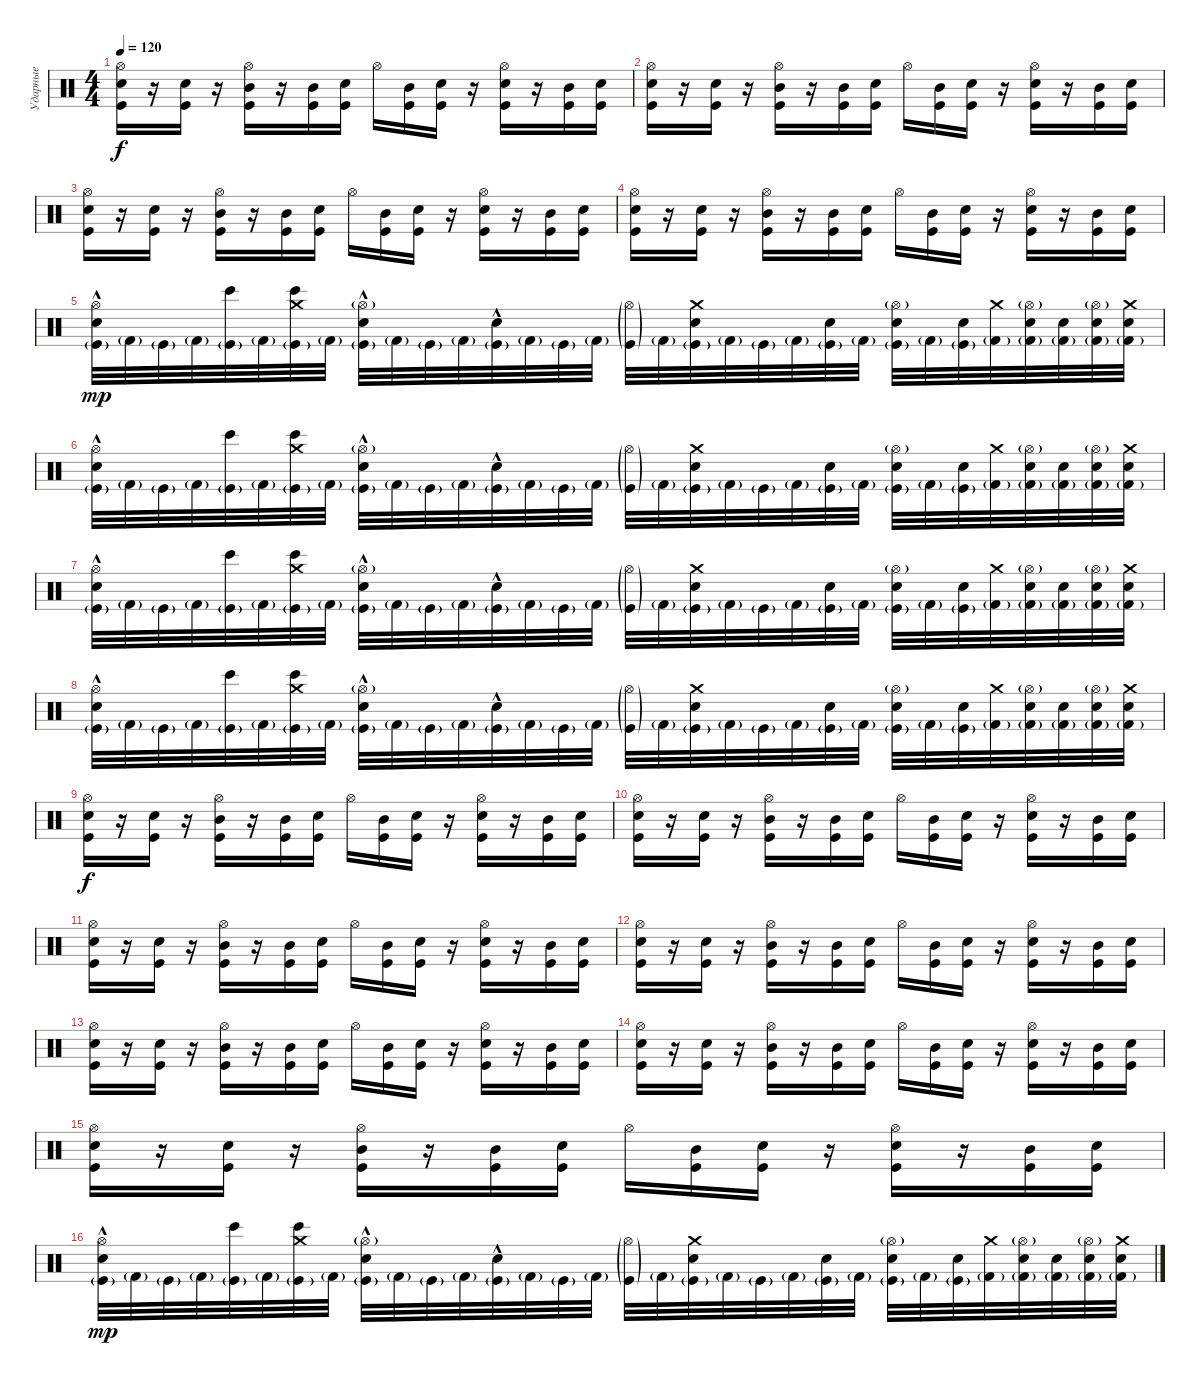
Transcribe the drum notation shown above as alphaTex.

\track ("Ударные" "Ударные") {instrument percussion}
\staff {score}
\articulation defaults
\ts (4 4)
\tempo 120
\clef neutral
\ks c
("Hi-Hat (open)" "Snare (hit) 2" "Kick (hit)").16{dy f} r.16 ("Snare (hit) 2" "Kick (hit)").16 r.16 ("Hi-Hat (open)" "Mid Tom (hit)" "Kick (hit)").16 r.16 ("Mid Tom (hit)" "Kick (hit)").16 ("Snare (hit) 2" "Kick (hit)").16 "Hi-Hat (open)".16 ("Mid Tom (hit)" "Kick (hit)").16 ("Snare (hit) 2" "Kick (hit)").16 r.16 ("Hi-Hat (open)" "Snare (hit) 2" "Kick (hit)").16 r.16 ("Mid Tom (hit)" "Kick (hit)").16 ("Snare (hit) 2" "Kick (hit)").16 |
("Hi-Hat (open)" "Snare (hit) 2" "Kick (hit)").16 r.16 ("Snare (hit) 2" "Kick (hit)").16 r.16 ("Hi-Hat (open)" "Mid Tom (hit)" "Kick (hit)").16 r.16 ("Mid Tom (hit)" "Kick (hit)").16 ("Snare (hit) 2" "Kick (hit)").16 "Hi-Hat (open)".16 ("Mid Tom (hit)" "Kick (hit)").16 ("Snare (hit) 2" "Kick (hit)").16 r.16 ("Hi-Hat (open)" "Snare (hit) 2" "Kick (hit)").16 r.16 ("Mid Tom (hit)" "Kick (hit)").16 ("Snare (hit) 2" "Kick (hit)").16 |
("Hi-Hat (open)" "Snare (hit) 2" "Kick (hit)").16 r.16 ("Snare (hit) 2" "Kick (hit)").16 r.16 ("Hi-Hat (open)" "Mid Tom (hit)" "Kick (hit)").16 r.16 ("Mid Tom (hit)" "Kick (hit)").16 ("Snare (hit) 2" "Kick (hit)").16 "Hi-Hat (open)".16 ("Mid Tom (hit)" "Kick (hit)").16 ("Snare (hit) 2" "Kick (hit)").16 r.16 ("Hi-Hat (open)" "Snare (hit) 2" "Kick (hit)").16 r.16 ("Mid Tom (hit)" "Kick (hit)").16 ("Snare (hit) 2" "Kick (hit)").16 |
("Hi-Hat (open)" "Snare (hit) 2" "Kick (hit)").16 r.16 ("Snare (hit) 2" "Kick (hit)").16 r.16 ("Hi-Hat (open)" "Mid Tom (hit)" "Kick (hit)").16 r.16 ("Mid Tom (hit)" "Kick (hit)").16 ("Snare (hit) 2" "Kick (hit)").16 "Hi-Hat (open)".16 ("Mid Tom (hit)" "Kick (hit)").16 ("Snare (hit) 2" "Kick (hit)").16 r.16 ("Hi-Hat (open)" "Snare (hit) 2" "Kick (hit)").16 r.16 ("Mid Tom (hit)" "Kick (hit)").16 ("Snare (hit) 2" "Kick (hit)").16 |
("Hi-Hat (open)" "Snare (hit) 2"{hac} "Kick (hit)"{g}).32{dy mp} "Kick (hit) 2"{g}.32 "Kick (hit)"{g}.32 "Kick (hit) 2"{g}.32 ("Bongo High (hit)" "Kick (hit)"{g}).32 "Kick (hit) 2"{g}.32 ("Crash medium (hit)" "Bongo High (hit)" "Kick (hit)"{g}).32 "Kick (hit) 2"{g}.32 ("Hi-Hat (open)"{g} "Electric Snare (hit)"{hac} "Kick (hit)"{g}).32 "Kick (hit) 2"{g}.32 "Kick (hit)"{g}.32 "Kick (hit) 2"{g}.32 ("Snare (hit) 2"{hac} "Kick (hit)"{g}).32 "Kick (hit) 2"{g}.32 "Kick (hit)"{g}.32 "Kick (hit) 2"{g}.32 ("Hi-Hat (open)"{g} "Kick (hit)"{g}).32 "Kick (hit) 2"{g}.32 ("Crash medium (hit)" "Snare (hit) 2" "Kick (hit)"{g}).32 "Kick (hit) 2"{g}.32 "Kick (hit)"{g}.32 "Kick (hit) 2"{g}.32 ("Snare (hit) 2" "Kick (hit)"{g}).32 "Kick (hit) 2"{g}.32 ("Hi-Hat (open)"{g} "Electric Snare (hit)" "Kick (hit)"{g}).32 "Kick (hit) 2"{g}.32 ("Electric Snare (hit)" "Kick (hit)"{g}).32 ("Crash medium (hit)" "Kick (hit) 2"{g}).32 ("Hi-Hat (open)"{g} "Electric Snare (hit)" "Kick (hit) 2"{g}).32 ("Electric Snare (hit)" "Kick (hit) 2"{g}).32 ("Hi-Hat (open)"{g} "Electric Snare (hit)" "Kick (hit) 2"{g}).32 ("Crash medium (hit)" "Electric Snare (hit)" "Kick (hit) 2"{g}).32 |
("Hi-Hat (open)" "Snare (hit) 2"{hac} "Kick (hit)"{g}).32 "Kick (hit) 2"{g}.32 "Kick (hit)"{g}.32 "Kick (hit) 2"{g}.32 ("Bongo High (hit)" "Kick (hit)"{g}).32 "Kick (hit) 2"{g}.32 ("Crash medium (hit)" "Bongo High (hit)" "Kick (hit)"{g}).32 "Kick (hit) 2"{g}.32 ("Hi-Hat (open)"{g} "Electric Snare (hit)"{hac} "Kick (hit)"{g}).32 "Kick (hit) 2"{g}.32 "Kick (hit)"{g}.32 "Kick (hit) 2"{g}.32 ("Snare (hit) 2"{hac} "Kick (hit)"{g}).32 "Kick (hit) 2"{g}.32 "Kick (hit)"{g}.32 "Kick (hit) 2"{g}.32 ("Hi-Hat (open)"{g} "Kick (hit)"{g}).32 "Kick (hit) 2"{g}.32 ("Crash medium (hit)" "Snare (hit) 2" "Kick (hit)"{g}).32 "Kick (hit) 2"{g}.32 "Kick (hit)"{g}.32 "Kick (hit) 2"{g}.32 ("Snare (hit) 2" "Kick (hit)"{g}).32 "Kick (hit) 2"{g}.32 ("Hi-Hat (open)"{g} "Electric Snare (hit)" "Kick (hit)"{g}).32 "Kick (hit) 2"{g}.32 ("Electric Snare (hit)" "Kick (hit)"{g}).32 ("Crash medium (hit)" "Kick (hit) 2"{g}).32 ("Hi-Hat (open)"{g} "Electric Snare (hit)" "Kick (hit) 2"{g}).32 ("Electric Snare (hit)" "Kick (hit) 2"{g}).32 ("Hi-Hat (open)"{g} "Electric Snare (hit)" "Kick (hit) 2"{g}).32 ("Crash medium (hit)" "Electric Snare (hit)" "Kick (hit) 2"{g}).32 |
("Hi-Hat (open)" "Snare (hit) 2"{hac} "Kick (hit)"{g}).32 "Kick (hit) 2"{g}.32 "Kick (hit)"{g}.32 "Kick (hit) 2"{g}.32 ("Bongo High (hit)" "Kick (hit)"{g}).32 "Kick (hit) 2"{g}.32 ("Crash medium (hit)" "Bongo High (hit)" "Kick (hit)"{g}).32 "Kick (hit) 2"{g}.32 ("Hi-Hat (open)"{g} "Electric Snare (hit)"{hac} "Kick (hit)"{g}).32 "Kick (hit) 2"{g}.32 "Kick (hit)"{g}.32 "Kick (hit) 2"{g}.32 ("Snare (hit) 2"{hac} "Kick (hit)"{g}).32 "Kick (hit) 2"{g}.32 "Kick (hit)"{g}.32 "Kick (hit) 2"{g}.32 ("Hi-Hat (open)"{g} "Kick (hit)"{g}).32 "Kick (hit) 2"{g}.32 ("Crash medium (hit)" "Snare (hit) 2" "Kick (hit)"{g}).32 "Kick (hit) 2"{g}.32 "Kick (hit)"{g}.32 "Kick (hit) 2"{g}.32 ("Snare (hit) 2" "Kick (hit)"{g}).32 "Kick (hit) 2"{g}.32 ("Hi-Hat (open)"{g} "Electric Snare (hit)" "Kick (hit)"{g}).32 "Kick (hit) 2"{g}.32 ("Electric Snare (hit)" "Kick (hit)"{g}).32 ("Crash medium (hit)" "Kick (hit) 2"{g}).32 ("Hi-Hat (open)"{g} "Electric Snare (hit)" "Kick (hit) 2"{g}).32 ("Electric Snare (hit)" "Kick (hit) 2"{g}).32 ("Hi-Hat (open)"{g} "Electric Snare (hit)" "Kick (hit) 2"{g}).32 ("Crash medium (hit)" "Electric Snare (hit)" "Kick (hit) 2"{g}).32 |
("Hi-Hat (open)" "Snare (hit) 2"{hac} "Kick (hit)"{g}).32 "Kick (hit) 2"{g}.32 "Kick (hit)"{g}.32 "Kick (hit) 2"{g}.32 ("Bongo High (hit)" "Kick (hit)"{g}).32 "Kick (hit) 2"{g}.32 ("Crash medium (hit)" "Bongo High (hit)" "Kick (hit)"{g}).32 "Kick (hit) 2"{g}.32 ("Hi-Hat (open)"{g} "Electric Snare (hit)"{hac} "Kick (hit)"{g}).32 "Kick (hit) 2"{g}.32 "Kick (hit)"{g}.32 "Kick (hit) 2"{g}.32 ("Snare (hit) 2"{hac} "Kick (hit)"{g}).32 "Kick (hit) 2"{g}.32 "Kick (hit)"{g}.32 "Kick (hit) 2"{g}.32 ("Hi-Hat (open)"{g} "Kick (hit)"{g}).32 "Kick (hit) 2"{g}.32 ("Crash medium (hit)" "Snare (hit) 2" "Kick (hit)"{g}).32 "Kick (hit) 2"{g}.32 "Kick (hit)"{g}.32 "Kick (hit) 2"{g}.32 ("Snare (hit) 2" "Kick (hit)"{g}).32 "Kick (hit) 2"{g}.32 ("Hi-Hat (open)"{g} "Electric Snare (hit)" "Kick (hit)"{g}).32 "Kick (hit) 2"{g}.32 ("Electric Snare (hit)" "Kick (hit)"{g}).32 ("Crash medium (hit)" "Kick (hit) 2"{g}).32 ("Hi-Hat (open)"{g} "Electric Snare (hit)" "Kick (hit) 2"{g}).32 ("Electric Snare (hit)" "Kick (hit) 2"{g}).32 ("Hi-Hat (open)"{g} "Electric Snare (hit)" "Kick (hit) 2"{g}).32 ("Crash medium (hit)" "Electric Snare (hit)" "Kick (hit) 2"{g}).32 |
("Hi-Hat (open)" "Snare (hit) 2" "Kick (hit)").16{dy f} r.16 ("Snare (hit) 2" "Kick (hit)").16 r.16 ("Hi-Hat (open)" "Mid Tom (hit)" "Kick (hit)").16 r.16 ("Mid Tom (hit)" "Kick (hit)").16 ("Snare (hit) 2" "Kick (hit)").16 "Hi-Hat (open)".16 ("Mid Tom (hit)" "Kick (hit)").16 ("Snare (hit) 2" "Kick (hit)").16 r.16 ("Hi-Hat (open)" "Snare (hit) 2" "Kick (hit)").16 r.16 ("Mid Tom (hit)" "Kick (hit)").16 ("Snare (hit) 2" "Kick (hit)").16 |
("Hi-Hat (open)" "Snare (hit) 2" "Kick (hit)").16 r.16 ("Snare (hit) 2" "Kick (hit)").16 r.16 ("Hi-Hat (open)" "Mid Tom (hit)" "Kick (hit)").16 r.16 ("Mid Tom (hit)" "Kick (hit)").16 ("Snare (hit) 2" "Kick (hit)").16 "Hi-Hat (open)".16 ("Mid Tom (hit)" "Kick (hit)").16 ("Snare (hit) 2" "Kick (hit)").16 r.16 ("Hi-Hat (open)" "Snare (hit) 2" "Kick (hit)").16 r.16 ("Mid Tom (hit)" "Kick (hit)").16 ("Snare (hit) 2" "Kick (hit)").16 |
("Hi-Hat (open)" "Snare (hit) 2" "Kick (hit)").16 r.16 ("Snare (hit) 2" "Kick (hit)").16 r.16 ("Hi-Hat (open)" "Mid Tom (hit)" "Kick (hit)").16 r.16 ("Mid Tom (hit)" "Kick (hit)").16 ("Snare (hit) 2" "Kick (hit)").16 "Hi-Hat (open)".16 ("Mid Tom (hit)" "Kick (hit)").16 ("Snare (hit) 2" "Kick (hit)").16 r.16 ("Hi-Hat (open)" "Snare (hit) 2" "Kick (hit)").16 r.16 ("Mid Tom (hit)" "Kick (hit)").16 ("Snare (hit) 2" "Kick (hit)").16 |
("Hi-Hat (open)" "Snare (hit) 2" "Kick (hit)").16 r.16 ("Snare (hit) 2" "Kick (hit)").16 r.16 ("Hi-Hat (open)" "Mid Tom (hit)" "Kick (hit)").16 r.16 ("Mid Tom (hit)" "Kick (hit)").16 ("Snare (hit) 2" "Kick (hit)").16 "Hi-Hat (open)".16 ("Mid Tom (hit)" "Kick (hit)").16 ("Snare (hit) 2" "Kick (hit)").16 r.16 ("Hi-Hat (open)" "Snare (hit) 2" "Kick (hit)").16 r.16 ("Mid Tom (hit)" "Kick (hit)").16 ("Snare (hit) 2" "Kick (hit)").16 |
("Hi-Hat (open)" "Snare (hit) 2" "Kick (hit)").16 r.16 ("Snare (hit) 2" "Kick (hit)").16 r.16 ("Hi-Hat (open)" "Mid Tom (hit)" "Kick (hit)").16 r.16 ("Mid Tom (hit)" "Kick (hit)").16 ("Snare (hit) 2" "Kick (hit)").16 "Hi-Hat (open)".16 ("Mid Tom (hit)" "Kick (hit)").16 ("Snare (hit) 2" "Kick (hit)").16 r.16 ("Hi-Hat (open)" "Snare (hit) 2" "Kick (hit)").16 r.16 ("Mid Tom (hit)" "Kick (hit)").16 ("Snare (hit) 2" "Kick (hit)").16 |
("Hi-Hat (open)" "Snare (hit) 2" "Kick (hit)").16 r.16 ("Snare (hit) 2" "Kick (hit)").16 r.16 ("Hi-Hat (open)" "Mid Tom (hit)" "Kick (hit)").16 r.16 ("Mid Tom (hit)" "Kick (hit)").16 ("Snare (hit) 2" "Kick (hit)").16 "Hi-Hat (open)".16 ("Mid Tom (hit)" "Kick (hit)").16 ("Snare (hit) 2" "Kick (hit)").16 r.16 ("Hi-Hat (open)" "Snare (hit) 2" "Kick (hit)").16 r.16 ("Mid Tom (hit)" "Kick (hit)").16 ("Snare (hit) 2" "Kick (hit)").16 |
("Hi-Hat (open)" "Snare (hit) 2" "Kick (hit)").16 r.16 ("Snare (hit) 2" "Kick (hit)").16 r.16 ("Hi-Hat (open)" "Mid Tom (hit)" "Kick (hit)").16 r.16 ("Mid Tom (hit)" "Kick (hit)").16 ("Snare (hit) 2" "Kick (hit)").16 "Hi-Hat (open)".16 ("Mid Tom (hit)" "Kick (hit)").16 ("Snare (hit) 2" "Kick (hit)").16 r.16 ("Hi-Hat (open)" "Snare (hit) 2" "Kick (hit)").16 r.16 ("Mid Tom (hit)" "Kick (hit)").16 ("Snare (hit) 2" "Kick (hit)").16 |
("Hi-Hat (open)" "Snare (hit) 2"{hac} "Kick (hit)"{g}).32{dy mp} "Kick (hit) 2"{g}.32 "Kick (hit)"{g}.32 "Kick (hit) 2"{g}.32 ("Bongo High (hit)" "Kick (hit)"{g}).32 "Kick (hit) 2"{g}.32 ("Crash medium (hit)" "Bongo High (hit)" "Kick (hit)"{g}).32 "Kick (hit) 2"{g}.32 ("Hi-Hat (open)"{g} "Electric Snare (hit)"{hac} "Kick (hit)"{g}).32 "Kick (hit) 2"{g}.32 "Kick (hit)"{g}.32 "Kick (hit) 2"{g}.32 ("Snare (hit) 2"{hac} "Kick (hit)"{g}).32 "Kick (hit) 2"{g}.32 "Kick (hit)"{g}.32 "Kick (hit) 2"{g}.32 ("Hi-Hat (open)"{g} "Kick (hit)"{g}).32 "Kick (hit) 2"{g}.32 ("Crash medium (hit)" "Snare (hit) 2" "Kick (hit)"{g}).32 "Kick (hit) 2"{g}.32 "Kick (hit)"{g}.32 "Kick (hit) 2"{g}.32 ("Snare (hit) 2" "Kick (hit)"{g}).32 "Kick (hit) 2"{g}.32 ("Hi-Hat (open)"{g} "Electric Snare (hit)" "Kick (hit)"{g}).32 "Kick (hit) 2"{g}.32 ("Electric Snare (hit)" "Kick (hit)"{g}).32 ("Crash medium (hit)" "Kick (hit) 2"{g}).32 ("Hi-Hat (open)"{g} "Electric Snare (hit)" "Kick (hit) 2"{g}).32 ("Electric Snare (hit)" "Kick (hit) 2"{g}).32 ("Hi-Hat (open)"{g} "Electric Snare (hit)" "Kick (hit) 2"{g}).32 ("Crash medium (hit)" "Electric Snare (hit)" "Kick (hit) 2"{g}).32
